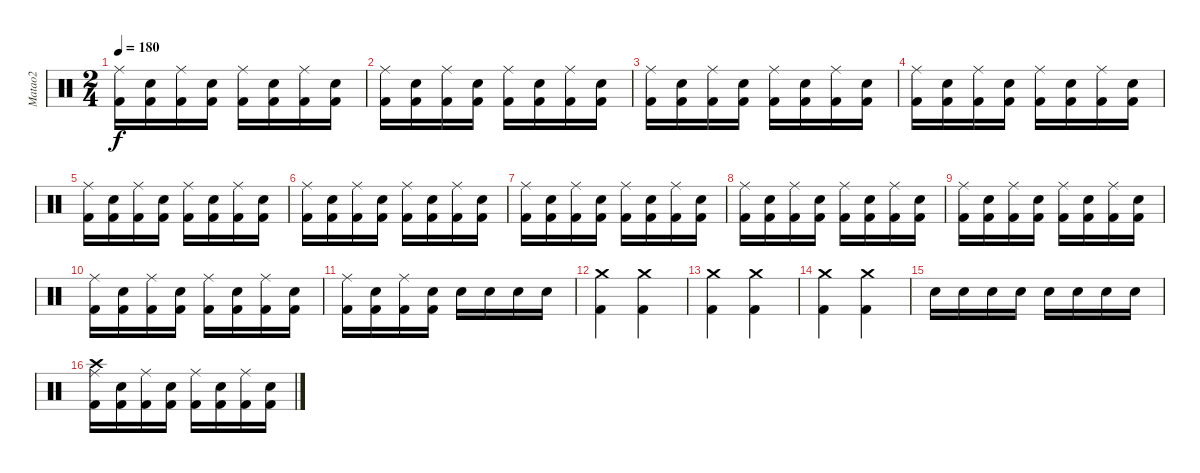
\track ("Matao2" "Matao2") {instrument percussion}
\staff {score}
\articulation defaults
\ts (2 4)
\tempo 180
\clef neutral
\ks c
("Kick (hit) 2" "Ride (middle)").16{dy f} ("Kick (hit) 2" "Electric Snare (hit)").16 ("Kick (hit) 2" "Ride (middle)").16 ("Kick (hit) 2" "Electric Snare (hit)").16 ("Kick (hit) 2" "Ride (middle)").16 ("Kick (hit) 2" "Electric Snare (hit)").16 ("Kick (hit) 2" "Ride (middle)").16 ("Kick (hit) 2" "Electric Snare (hit)").16 |
("Kick (hit) 2" "Ride (middle)").16 ("Kick (hit) 2" "Electric Snare (hit)").16 ("Kick (hit) 2" "Ride (middle)").16 ("Kick (hit) 2" "Electric Snare (hit)").16 ("Kick (hit) 2" "Ride (middle)").16 ("Kick (hit) 2" "Electric Snare (hit)").16 ("Kick (hit) 2" "Ride (middle)").16 ("Kick (hit) 2" "Electric Snare (hit)").16 |
("Kick (hit) 2" "Ride (middle)").16 ("Kick (hit) 2" "Electric Snare (hit)").16 ("Kick (hit) 2" "Ride (middle)").16 ("Kick (hit) 2" "Electric Snare (hit)").16 ("Kick (hit) 2" "Ride (middle)").16 ("Kick (hit) 2" "Electric Snare (hit)").16 ("Kick (hit) 2" "Ride (middle)").16 ("Kick (hit) 2" "Electric Snare (hit)").16 |
("Kick (hit) 2" "Ride (middle)").16 ("Kick (hit) 2" "Electric Snare (hit)").16 ("Kick (hit) 2" "Ride (middle)").16 ("Kick (hit) 2" "Electric Snare (hit)").16 ("Kick (hit) 2" "Ride (middle)").16 ("Kick (hit) 2" "Electric Snare (hit)").16 ("Kick (hit) 2" "Ride (middle)").16 ("Kick (hit) 2" "Electric Snare (hit)").16 |
("Kick (hit) 2" "Ride (middle)").16 ("Kick (hit) 2" "Electric Snare (hit)").16 ("Kick (hit) 2" "Ride (middle)").16 ("Kick (hit) 2" "Electric Snare (hit)").16 ("Kick (hit) 2" "Ride (middle)").16 ("Kick (hit) 2" "Electric Snare (hit)").16 ("Kick (hit) 2" "Ride (middle)").16 ("Kick (hit) 2" "Electric Snare (hit)").16 |
("Kick (hit) 2" "Ride (middle)").16 ("Kick (hit) 2" "Electric Snare (hit)").16 ("Kick (hit) 2" "Ride (middle)").16 ("Kick (hit) 2" "Electric Snare (hit)").16 ("Kick (hit) 2" "Ride (middle)").16 ("Kick (hit) 2" "Electric Snare (hit)").16 ("Kick (hit) 2" "Ride (middle)").16 ("Kick (hit) 2" "Electric Snare (hit)").16 |
("Kick (hit) 2" "Ride (middle)").16 ("Kick (hit) 2" "Electric Snare (hit)").16 ("Kick (hit) 2" "Ride (middle)").16 ("Kick (hit) 2" "Electric Snare (hit)").16 ("Kick (hit) 2" "Ride (middle)").16 ("Kick (hit) 2" "Electric Snare (hit)").16 ("Kick (hit) 2" "Ride (middle)").16 ("Kick (hit) 2" "Electric Snare (hit)").16 |
("Kick (hit) 2" "Ride (middle)").16 ("Kick (hit) 2" "Electric Snare (hit)").16 ("Kick (hit) 2" "Ride (middle)").16 ("Kick (hit) 2" "Electric Snare (hit)").16 ("Kick (hit) 2" "Ride (middle)").16 ("Kick (hit) 2" "Electric Snare (hit)").16 ("Kick (hit) 2" "Ride (middle)").16 ("Kick (hit) 2" "Electric Snare (hit)").16 |
("Kick (hit) 2" "Ride (middle)").16 ("Kick (hit) 2" "Electric Snare (hit)").16 ("Kick (hit) 2" "Ride (middle)").16 ("Kick (hit) 2" "Electric Snare (hit)").16 ("Kick (hit) 2" "Ride (middle)").16 ("Kick (hit) 2" "Electric Snare (hit)").16 ("Kick (hit) 2" "Ride (middle)").16 ("Kick (hit) 2" "Electric Snare (hit)").16 |
("Kick (hit) 2" "Ride (middle)").16 ("Kick (hit) 2" "Electric Snare (hit)").16 ("Kick (hit) 2" "Ride (middle)").16 ("Kick (hit) 2" "Electric Snare (hit)").16 ("Kick (hit) 2" "Ride (middle)").16 ("Kick (hit) 2" "Electric Snare (hit)").16 ("Kick (hit) 2" "Ride (middle)").16 ("Kick (hit) 2" "Electric Snare (hit)").16 |
("Kick (hit) 2" "Ride (middle)").16 ("Kick (hit) 2" "Electric Snare (hit)").16 ("Kick (hit) 2" "Ride (middle)").16 ("Kick (hit) 2" "Electric Snare (hit)").16 "Electric Snare (hit)".16 "Electric Snare (hit)".16 "Electric Snare (hit)".16 "Electric Snare (hit)".16 |
("Kick (hit) 2" "Crash medium (hit)").4 ("Kick (hit) 2" "Crash medium (hit)").4 |
("Kick (hit) 2" "Crash medium (hit)").4 ("Kick (hit) 2" "Crash medium (hit)").4 |
("Kick (hit) 2" "Crash medium (hit)").4 ("Kick (hit) 2" "Crash medium (hit)").4 |
"Electric Snare (hit)".16 "Electric Snare (hit)".16 "Electric Snare (hit)".16 "Electric Snare (hit)".16 "Electric Snare (hit)".16 "Electric Snare (hit)".16 "Electric Snare (hit)".16 "Electric Snare (hit)".16 |
("Kick (hit) 2" "Ride (middle)" "Crash high (hit)").16 ("Kick (hit) 2" "Electric Snare (hit)").16 ("Kick (hit) 2" "Ride (middle)").16 ("Kick (hit) 2" "Electric Snare (hit)").16 ("Kick (hit) 2" "Ride (middle)").16 ("Kick (hit) 2" "Electric Snare (hit)").16 ("Kick (hit) 2" "Ride (middle)").16 ("Kick (hit) 2" "Electric Snare (hit)").16
